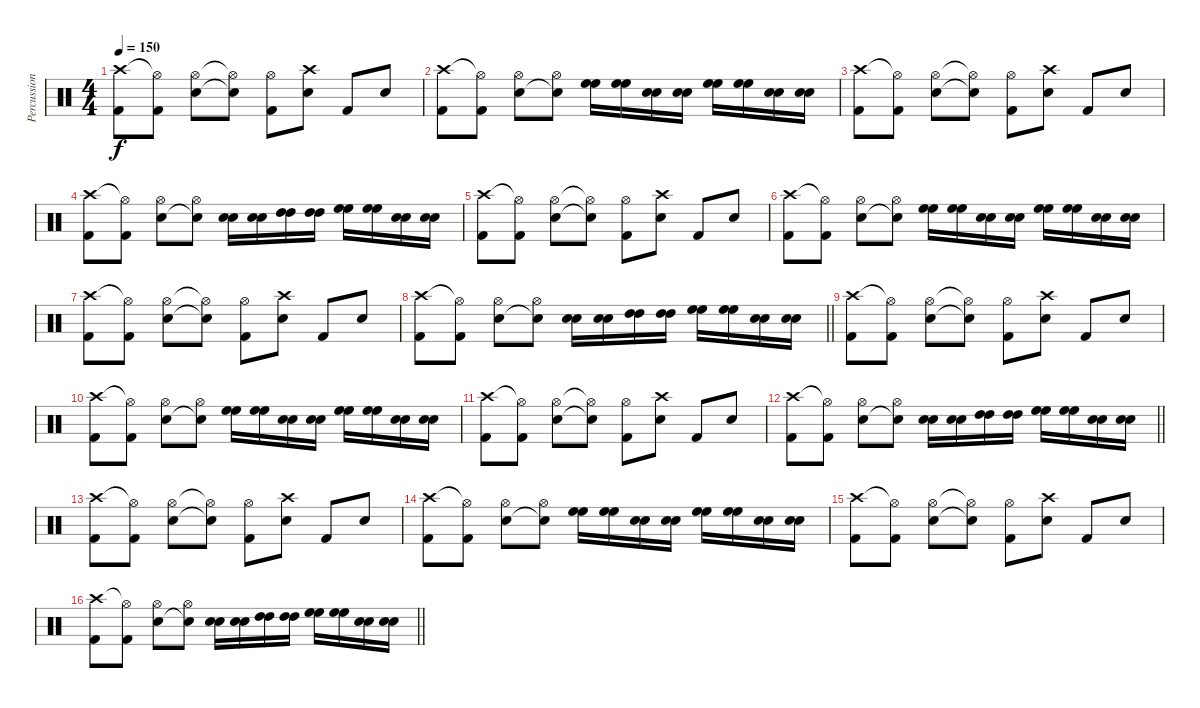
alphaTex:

\track ("Percussion" "Percussion") {instrument percussion}
\staff {score}
\articulation defaults
\ts (4 4)
\tempo 150
\clef neutral
\ks c
("Crash high (hit)" "Kick (hit) 2").8{dy f} ("Hi-Hat (open)"{t} "Kick (hit) 2").8 ("Hi-Hat (open)" "Snare (hit) 2").8 ("Hi-Hat (open)"{t} "Snare (hit) 2"{t}).8 ("Hi-Hat (open)" "Kick (hit) 2").8 ("Crash high (hit)" "Snare (hit) 2").8 "Kick (hit) 2".8 "Snare (hit) 2".8 |
("Crash high (hit)" "Kick (hit) 2").8 ("Hi-Hat (open)"{t} "Kick (hit) 2").8 ("Hi-Hat (open)" "Snare (hit) 2").8 ("Hi-Hat (open)" "Snare (hit) 2"{t}).8 ("High Floor Tom (hit)" "High Floor Tom (hit)").16 ("High Floor Tom (hit)" "High Floor Tom (hit)").16 ("Snare (hit) 2" "Snare (hit) 2").16 ("Snare (hit) 2" "Snare (hit) 2").16 ("High Floor Tom (hit)" "High Floor Tom (hit)").16 ("High Floor Tom (hit)" "High Floor Tom (hit)").16 ("Snare (hit) 2" "Snare (hit) 2").16 ("Snare (hit) 2" "Snare (hit) 2").16 |
("Crash high (hit)" "Kick (hit) 2").8 ("Hi-Hat (open)"{t} "Kick (hit) 2").8 ("Hi-Hat (open)" "Snare (hit) 2").8 ("Hi-Hat (open)"{t} "Snare (hit) 2"{t}).8 ("Hi-Hat (open)" "Kick (hit) 2").8 ("Crash high (hit)" "Snare (hit) 2").8 "Kick (hit) 2".8 "Snare (hit) 2".8 |
("Crash high (hit)" "Kick (hit) 2").8 ("Hi-Hat (open)"{t} "Kick (hit) 2").8 ("Hi-Hat (open)" "Snare (hit) 2").8 ("Hi-Hat (open)" "Snare (hit) 2"{t}).8 ("Snare (hit) 2" "Snare (hit) 2").16 ("Snare (hit) 2" "Snare (hit) 2").16 ("High Tom (hit)" "High Tom (hit)").16 ("High Tom (hit)" "High Tom (hit)").16 ("High Floor Tom (hit)" "High Floor Tom (hit)").16 ("High Floor Tom (hit)" "High Floor Tom (hit)").16 ("Snare (hit) 2" "Snare (hit) 2").16 ("Snare (hit) 2" "Snare (hit) 2").16 |
("Crash high (hit)" "Kick (hit) 2").8 ("Hi-Hat (open)"{t} "Kick (hit) 2").8 ("Hi-Hat (open)" "Snare (hit) 2").8 ("Hi-Hat (open)"{t} "Snare (hit) 2"{t}).8 ("Hi-Hat (open)" "Kick (hit) 2").8 ("Crash high (hit)" "Snare (hit) 2").8 "Kick (hit) 2".8 "Snare (hit) 2".8 |
("Crash high (hit)" "Kick (hit) 2").8 ("Hi-Hat (open)"{t} "Kick (hit) 2").8 ("Hi-Hat (open)" "Snare (hit) 2").8 ("Hi-Hat (open)" "Snare (hit) 2"{t}).8 ("High Floor Tom (hit)" "High Floor Tom (hit)").16 ("High Floor Tom (hit)" "High Floor Tom (hit)").16 ("Snare (hit) 2" "Snare (hit) 2").16 ("Snare (hit) 2" "Snare (hit) 2").16 ("High Floor Tom (hit)" "High Floor Tom (hit)").16 ("High Floor Tom (hit)" "High Floor Tom (hit)").16 ("Snare (hit) 2" "Snare (hit) 2").16 ("Snare (hit) 2" "Snare (hit) 2").16 |
("Crash high (hit)" "Kick (hit) 2").8 ("Hi-Hat (open)"{t} "Kick (hit) 2").8 ("Hi-Hat (open)" "Snare (hit) 2").8 ("Hi-Hat (open)"{t} "Snare (hit) 2"{t}).8 ("Hi-Hat (open)" "Kick (hit) 2").8 ("Crash high (hit)" "Snare (hit) 2").8 "Kick (hit) 2".8 "Snare (hit) 2".8 |
\barLineRight lightlight
("Crash high (hit)" "Kick (hit) 2").8 ("Hi-Hat (open)"{t} "Kick (hit) 2").8 ("Hi-Hat (open)" "Snare (hit) 2").8 ("Hi-Hat (open)" "Snare (hit) 2"{t}).8 ("Snare (hit) 2" "Snare (hit) 2").16 ("Snare (hit) 2" "Snare (hit) 2").16 ("High Tom (hit)" "High Tom (hit)").16 ("High Tom (hit)" "High Tom (hit)").16 ("High Floor Tom (hit)" "High Floor Tom (hit)").16 ("High Floor Tom (hit)" "High Floor Tom (hit)").16 ("Snare (hit) 2" "Snare (hit) 2").16 ("Snare (hit) 2" "Snare (hit) 2").16 |
("Crash high (hit)" "Kick (hit) 2").8 ("Hi-Hat (open)"{t} "Kick (hit) 2").8 ("Hi-Hat (open)" "Snare (hit) 2").8 ("Hi-Hat (open)"{t} "Snare (hit) 2"{t}).8 ("Hi-Hat (open)" "Kick (hit) 2").8 ("Crash high (hit)" "Snare (hit) 2").8 "Kick (hit) 2".8 "Snare (hit) 2".8 |
("Crash high (hit)" "Kick (hit) 2").8 ("Hi-Hat (open)"{t} "Kick (hit) 2").8 ("Hi-Hat (open)" "Snare (hit) 2").8 ("Hi-Hat (open)" "Snare (hit) 2"{t}).8 ("High Floor Tom (hit)" "High Floor Tom (hit)").16 ("High Floor Tom (hit)" "High Floor Tom (hit)").16 ("Snare (hit) 2" "Snare (hit) 2").16 ("Snare (hit) 2" "Snare (hit) 2").16 ("High Floor Tom (hit)" "High Floor Tom (hit)").16 ("High Floor Tom (hit)" "High Floor Tom (hit)").16 ("Snare (hit) 2" "Snare (hit) 2").16 ("Snare (hit) 2" "Snare (hit) 2").16 |
("Crash high (hit)" "Kick (hit) 2").8 ("Hi-Hat (open)"{t} "Kick (hit) 2").8 ("Hi-Hat (open)" "Snare (hit) 2").8 ("Hi-Hat (open)"{t} "Snare (hit) 2"{t}).8 ("Hi-Hat (open)" "Kick (hit) 2").8 ("Crash high (hit)" "Snare (hit) 2").8 "Kick (hit) 2".8 "Snare (hit) 2".8 |
\barLineRight lightlight
("Crash high (hit)" "Kick (hit) 2").8 ("Hi-Hat (open)"{t} "Kick (hit) 2").8 ("Hi-Hat (open)" "Snare (hit) 2").8 ("Hi-Hat (open)" "Snare (hit) 2"{t}).8 ("Snare (hit) 2" "Snare (hit) 2").16 ("Snare (hit) 2" "Snare (hit) 2").16 ("High Tom (hit)" "High Tom (hit)").16 ("High Tom (hit)" "High Tom (hit)").16 ("High Floor Tom (hit)" "High Floor Tom (hit)").16 ("High Floor Tom (hit)" "High Floor Tom (hit)").16 ("Snare (hit) 2" "Snare (hit) 2").16 ("Snare (hit) 2" "Snare (hit) 2").16 |
("Crash high (hit)" "Kick (hit) 2").8 ("Hi-Hat (open)"{t} "Kick (hit) 2").8 ("Hi-Hat (open)" "Snare (hit) 2").8 ("Hi-Hat (open)"{t} "Snare (hit) 2"{t}).8 ("Hi-Hat (open)" "Kick (hit) 2").8 ("Crash high (hit)" "Snare (hit) 2").8 "Kick (hit) 2".8 "Snare (hit) 2".8 |
("Crash high (hit)" "Kick (hit) 2").8 ("Hi-Hat (open)"{t} "Kick (hit) 2").8 ("Hi-Hat (open)" "Snare (hit) 2").8 ("Hi-Hat (open)" "Snare (hit) 2"{t}).8 ("High Floor Tom (hit)" "High Floor Tom (hit)").16 ("High Floor Tom (hit)" "High Floor Tom (hit)").16 ("Snare (hit) 2" "Snare (hit) 2").16 ("Snare (hit) 2" "Snare (hit) 2").16 ("High Floor Tom (hit)" "High Floor Tom (hit)").16 ("High Floor Tom (hit)" "High Floor Tom (hit)").16 ("Snare (hit) 2" "Snare (hit) 2").16 ("Snare (hit) 2" "Snare (hit) 2").16 |
("Crash high (hit)" "Kick (hit) 2").8 ("Hi-Hat (open)"{t} "Kick (hit) 2").8 ("Hi-Hat (open)" "Snare (hit) 2").8 ("Hi-Hat (open)"{t} "Snare (hit) 2"{t}).8 ("Hi-Hat (open)" "Kick (hit) 2").8 ("Crash high (hit)" "Snare (hit) 2").8 "Kick (hit) 2".8 "Snare (hit) 2".8 |
\barLineRight lightlight
("Crash high (hit)" "Kick (hit) 2").8 ("Hi-Hat (open)"{t} "Kick (hit) 2").8 ("Hi-Hat (open)" "Snare (hit) 2").8 ("Hi-Hat (open)" "Snare (hit) 2"{t}).8 ("Snare (hit) 2" "Snare (hit) 2").16 ("Snare (hit) 2" "Snare (hit) 2").16 ("High Tom (hit)" "High Tom (hit)").16 ("High Tom (hit)" "High Tom (hit)").16 ("High Floor Tom (hit)" "High Floor Tom (hit)").16 ("High Floor Tom (hit)" "High Floor Tom (hit)").16 ("Snare (hit) 2" "Snare (hit) 2").16 ("Snare (hit) 2" "Snare (hit) 2").16
